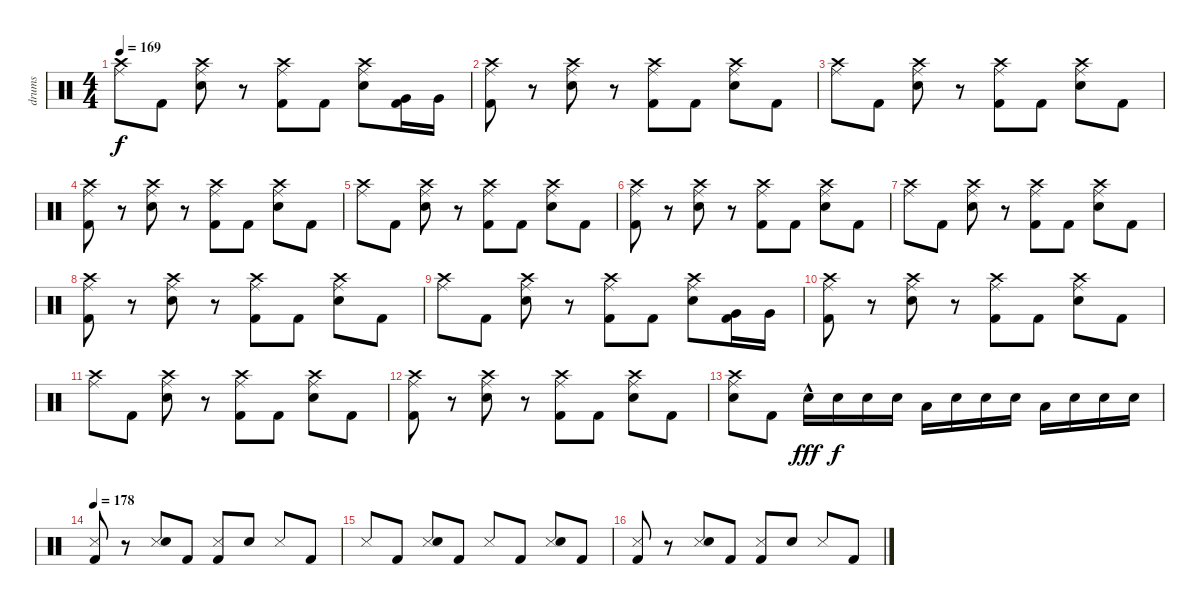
\track ("drums" "drums") {instrument percussion}
\staff {score}
\articulation defaults
\ts (4 4)
\tempo 169
\clef neutral
\ks c
("Crash high (hit)" "Ride (middle)").8{dy f} "Kick (hit) 2".8 ("Crash high (hit)" "Ride (middle)" "Snare (hit) 2").8 r.8 ("Crash high (hit)" "Ride (middle)" "Kick (hit) 2").8 "Kick (hit) 2".8 ("Crash high (hit)" "Ride (middle)" "Snare (hit) 2").8 ("Very Low Tom (hit)" "Kick (hit) 2").16 "Very Low Tom (hit)".16 |
("Crash high (hit)" "Ride (middle)" "Kick (hit) 2").8 r.8 ("Crash high (hit)" "Ride (middle)" "Snare (hit) 2").8 r.8 ("Crash high (hit)" "Ride (middle)" "Kick (hit) 2").8 "Kick (hit) 2".8 ("Crash high (hit)" "Ride (middle)" "Snare (hit) 2").8 "Kick (hit) 2".8 |
("Crash high (hit)" "Ride (middle)").8 "Kick (hit) 2".8 ("Crash high (hit)" "Ride (middle)" "Snare (hit) 2").8 r.8 ("Crash high (hit)" "Ride (middle)" "Kick (hit) 2").8 "Kick (hit) 2".8 ("Crash high (hit)" "Ride (middle)" "Snare (hit) 2").8 "Kick (hit) 2".8 |
("Crash high (hit)" "Ride (middle)" "Kick (hit) 2").8 r.8 ("Crash high (hit)" "Ride (middle)" "Snare (hit) 2").8 r.8 ("Crash high (hit)" "Ride (middle)" "Kick (hit) 2").8 "Kick (hit) 2".8 ("Crash high (hit)" "Ride (middle)" "Snare (hit) 2").8 "Kick (hit) 2".8 |
("Crash high (hit)" "Ride (middle)").8 "Kick (hit) 2".8 ("Crash high (hit)" "Ride (middle)" "Snare (hit) 2").8 r.8 ("Crash high (hit)" "Ride (middle)" "Kick (hit) 2").8 "Kick (hit) 2".8 ("Crash high (hit)" "Ride (middle)" "Snare (hit) 2").8 "Kick (hit) 2".8 |
("Crash high (hit)" "Ride (middle)" "Kick (hit) 2").8 r.8 ("Crash high (hit)" "Ride (middle)" "Snare (hit) 2").8 r.8 ("Crash high (hit)" "Ride (middle)" "Kick (hit) 2").8 "Kick (hit) 2".8 ("Crash high (hit)" "Ride (middle)" "Snare (hit) 2").8 "Kick (hit) 2".8 |
("Crash high (hit)" "Ride (middle)").8 "Kick (hit) 2".8 ("Crash high (hit)" "Ride (middle)" "Snare (hit) 2").8 r.8 ("Crash high (hit)" "Ride (middle)" "Kick (hit) 2").8 "Kick (hit) 2".8 ("Crash high (hit)" "Ride (middle)" "Snare (hit) 2").8 "Kick (hit) 2".8 |
("Crash high (hit)" "Ride (middle)" "Kick (hit) 2").8 r.8 ("Crash high (hit)" "Ride (middle)" "Snare (hit) 2").8 r.8 ("Crash high (hit)" "Ride (middle)" "Kick (hit) 2").8 "Kick (hit) 2".8 ("Crash high (hit)" "Ride (middle)" "Snare (hit) 2").8 "Kick (hit) 2".8 |
("Crash high (hit)" "Ride (middle)").8 "Kick (hit) 2".8 ("Crash high (hit)" "Ride (middle)" "Snare (hit) 2").8 r.8 ("Crash high (hit)" "Ride (middle)" "Kick (hit) 2").8 "Kick (hit) 2".8 ("Crash high (hit)" "Ride (middle)" "Snare (hit) 2").8 ("Very Low Tom (hit)" "Kick (hit) 2").16 "Very Low Tom (hit)".16 |
("Crash high (hit)" "Ride (middle)" "Kick (hit) 2").8 r.8 ("Crash high (hit)" "Ride (middle)" "Snare (hit) 2").8 r.8 ("Crash high (hit)" "Ride (middle)" "Kick (hit) 2").8 "Kick (hit) 2".8 ("Crash high (hit)" "Ride (middle)" "Snare (hit) 2").8 "Kick (hit) 2".8 |
("Crash high (hit)" "Ride (middle)").8 "Kick (hit) 2".8 ("Crash high (hit)" "Ride (middle)" "Snare (hit) 2").8 r.8 ("Crash high (hit)" "Ride (middle)" "Kick (hit) 2").8 "Kick (hit) 2".8 ("Crash high (hit)" "Ride (middle)" "Snare (hit) 2").8 "Kick (hit) 2".8 |
("Crash high (hit)" "Ride (middle)" "Kick (hit) 2").8 r.8 ("Crash high (hit)" "Ride (middle)" "Snare (hit) 2").8 r.8 ("Crash high (hit)" "Ride (middle)" "Kick (hit) 2").8 "Kick (hit) 2".8 ("Crash high (hit)" "Ride (middle)" "Snare (hit) 2").8 "Kick (hit) 2".8 |
("Crash high (hit)" "Ride (middle)" "Snare (hit) 2").8 "Kick (hit) 2".8 "Snare (hit) 2"{hac}.16{dy fff} "Snare (hit) 2".16{dy f} "Snare (hit) 2".16 "Snare (hit) 2".16 "Low Tom (hit)".16 "Snare (hit) 2".16 "Snare (hit) 2".16 "Snare (hit) 2".16 "Low Tom (hit)".16 "Snare (hit) 2".16 "Snare (hit) 2".16 "Snare (hit) 2".16 |
\tempo 178
("Snare (side stick) 3" "Kick (hit) 2").8 r.8 ("Snare (side stick) 3" "Snare (hit) 2").8 "Kick (hit) 2".8 ("Snare (side stick) 3" "Kick (hit) 2").8 "Snare (hit) 2".8 "Snare (side stick) 3".8 "Kick (hit) 2".8 |
"Snare (side stick) 3".8 "Kick (hit) 2".8 ("Snare (side stick) 3" "Snare (hit) 2").8 "Kick (hit) 2".8 "Snare (side stick) 3".8 "Kick (hit) 2".8 ("Snare (side stick) 3" "Snare (hit) 2").8 "Kick (hit) 2".8 |
("Snare (side stick) 3" "Kick (hit) 2").8 r.8 ("Snare (side stick) 3" "Snare (hit) 2").8 "Kick (hit) 2".8 ("Snare (side stick) 3" "Kick (hit) 2").8 "Snare (hit) 2".8 "Snare (side stick) 3".8 "Kick (hit) 2".8
